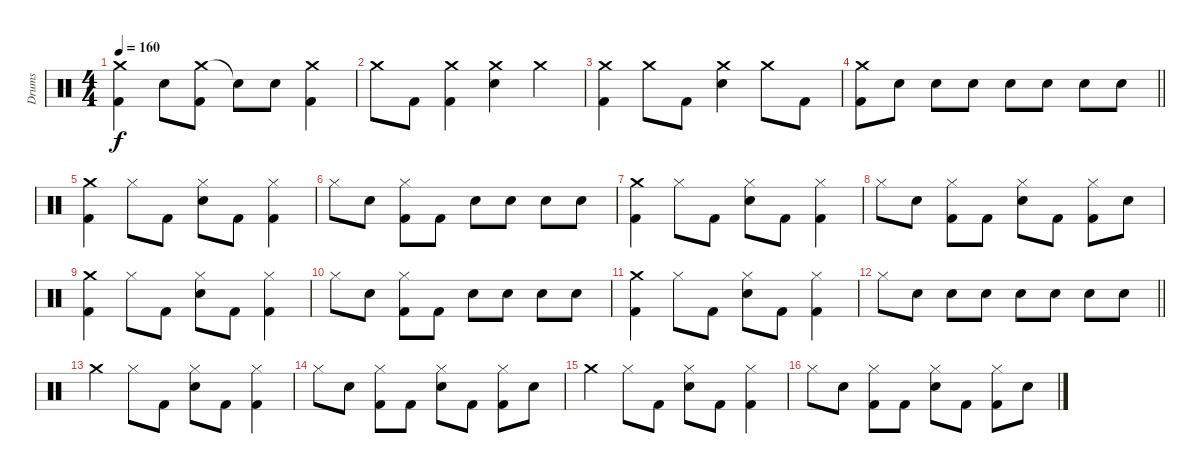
\track ("Drums" "Drums") {instrument percussion}
\staff {score}
\articulation defaults
\ts (4 4)
\tempo 160
\clef neutral
\ks c
("Crash medium (hit)" "Kick (hit) 2").4{dy f} "Snare (hit) 2".8 ("Crash medium (hit)" "Kick (hit) 2").8 "Snare (hit)"{t}.8 "Snare (hit) 2".8 ("Crash medium (hit)" "Kick (hit) 2").4 |
"Crash medium (hit)".8 "Kick (hit) 2".8 ("Kick (hit) 2" "Crash medium (hit)").4 ("Crash medium (hit)" "Snare (hit) 2").4 "Crash medium (hit)".4 |
("Crash medium (hit)" "Kick (hit) 2").4 "Crash medium (hit)".8 "Kick (hit) 2".8 ("Crash medium (hit)" "Snare (hit) 2").4 "Crash medium (hit)".8 "Kick (hit) 2".8 |
\barLineRight lightlight
("Crash medium (hit)" "Kick (hit) 2").8 "Snare (hit) 2".8 "Snare (hit) 2".8 "Snare (hit) 2".8 "Snare (hit) 2".8 "Snare (hit) 2".8 "Snare (hit) 2".8 "Snare (hit) 2".8 |
("Crash medium (hit)" "Kick (hit) 2").4 "Hi-Hat (closed)".8 "Kick (hit) 2".8 ("Hi-Hat (closed)" "Snare (hit) 2").8 "Kick (hit) 2".8 ("Hi-Hat (closed)" "Kick (hit) 2").4 |
"Hi-Hat (closed)".8 "Snare (hit) 2".8 ("Hi-Hat (closed)" "Kick (hit) 2").8 "Kick (hit) 2".8 "Snare (hit) 2".8 "Snare (hit) 2".8 "Snare (hit) 2".8 "Snare (hit) 2".8 |
("Crash medium (hit)" "Kick (hit) 2").4 "Hi-Hat (closed)".8 "Kick (hit) 2".8 ("Hi-Hat (closed)" "Snare (hit) 2").8 "Kick (hit) 2".8 ("Hi-Hat (closed)" "Kick (hit) 2").4 |
"Hi-Hat (closed)".8 "Snare (hit) 2".8 ("Hi-Hat (closed)" "Kick (hit) 2").8 "Kick (hit) 2".8 ("Hi-Hat (closed)" "Snare (hit) 2").8 "Kick (hit) 2".8 ("Hi-Hat (closed)" "Kick (hit) 2").8 "Snare (hit) 2".8 |
("Crash medium (hit)" "Kick (hit) 2").4 "Hi-Hat (closed)".8 "Kick (hit) 2".8 ("Snare (hit) 2" "Hi-Hat (closed)").8 "Kick (hit) 2".8 ("Hi-Hat (closed)" "Kick (hit) 2").4 |
"Hi-Hat (closed)".8 "Snare (hit) 2".8 ("Hi-Hat (closed)" "Kick (hit) 2").8 "Kick (hit) 2".8 "Snare (hit) 2".8 "Snare (hit) 2".8 "Snare (hit) 2".8 "Snare (hit) 2".8 |
("Crash medium (hit)" "Kick (hit) 2").4 "Hi-Hat (closed)".8 "Kick (hit) 2".8 ("Hi-Hat (closed)" "Snare (hit) 2").8 "Kick (hit) 2".8 ("Hi-Hat (closed)" "Kick (hit) 2").4 |
\barLineRight lightlight "Hi-Hat (closed)".8 "Snare (hit) 2".8 "Snare (hit) 2".8 "Snare (hit) 2".8 "Snare (hit) 2".8 "Snare (hit) 2".8 "Snare (hit) 2".8 "Snare (hit) 2".8
|
"Crash medium (hit)".4 "Hi-Hat (closed)".8 "Kick (hit) 2".8 ("Hi-Hat (closed)" "Snare (hit) 2").8 "Kick (hit) 2".8 ("Hi-Hat (closed)" "Kick (hit) 2").4 |
"Hi-Hat (closed)".8 "Snare (hit) 2".8 ("Hi-Hat (closed)" "Kick (hit) 2").8 "Kick (hit) 2".8 ("Hi-Hat (closed)" "Snare (hit) 2").8 "Kick (hit) 2".8 ("Hi-Hat (closed)" "Kick (hit) 2").8 "Snare (hit) 2".8 |
"Crash medium (hit)".4 "Hi-Hat (closed)".8 "Kick (hit) 2".8 ("Hi-Hat (closed)" "Snare (hit) 2").8 "Kick (hit) 2".8 ("Hi-Hat (closed)" "Kick (hit) 2").4 |
"Hi-Hat (closed)".8 "Snare (hit) 2".8 ("Hi-Hat (closed)" "Kick (hit) 2").8 "Kick (hit) 2".8 ("Hi-Hat (closed)" "Snare (hit) 2").8 "Kick (hit) 2".8 ("Hi-Hat (closed)" "Kick (hit) 2").8 "Snare (hit) 2".8
